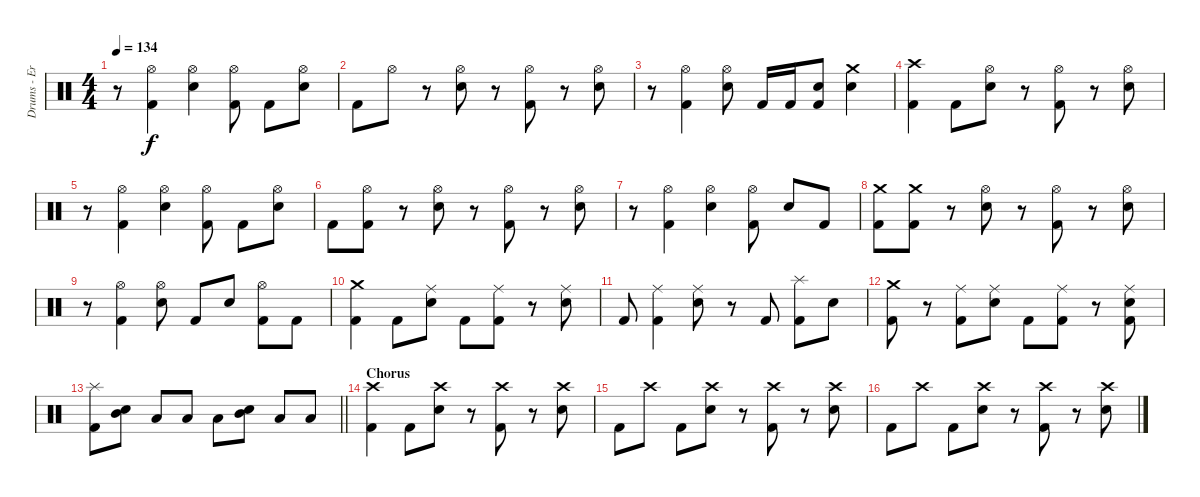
\track ("Drums - Eric Young" "Drums - Er") {instrument percussion}
\staff {score}
\articulation defaults
\ts (4 4)
\tempo 134
\clef neutral
\ks c
r.8{dy f} ("Hi-Hat (open)" "Kick (hit) 2").4 ("Hi-Hat (open)" "Electric Snare (hit)").4 ("Hi-Hat (open)" "Kick (hit) 2").8 "Kick (hit) 2".8 ("Hi-Hat (open)" "Electric Snare (hit)").8 |
"Kick (hit) 2".8 "Hi-Hat (open)".8 r.8 ("Hi-Hat (open)" "Electric Snare (hit)").8 r.8 ("Hi-Hat (open)" "Kick (hit) 2").8 r.8 ("Hi-Hat (open)" "Electric Snare (hit)").8 |
r.8 ("Hi-Hat (open)" "Kick (hit) 2").4 ("Hi-Hat (open)" "Electric Snare (hit)").8 "Kick (hit) 2".16 "Kick (hit) 2".16 ("Electric Snare (hit)" "Kick (hit) 2").8 ("Crash medium (hit)" "Electric Snare (hit)").4 |
("Crash high (hit)" "Kick (hit) 2").4 "Kick (hit) 2".8 ("Hi-Hat (open)" "Electric Snare (hit)").8 r.8 ("Hi-Hat (open)" "Kick (hit) 2").8 r.8 ("Hi-Hat (open)" "Electric Snare (hit)").8 |
r.8 ("Hi-Hat (open)" "Kick (hit) 2").4 ("Hi-Hat (open)" "Electric Snare (hit)").4 ("Hi-Hat (open)" "Kick (hit) 2").8 "Kick (hit) 2".8 ("Hi-Hat (open)" "Electric Snare (hit)").8 |
"Kick (hit) 2".8 ("Hi-Hat (open)" "Kick (hit) 2").8 r.8 ("Hi-Hat (open)" "Electric Snare (hit)").8 r.8 ("Hi-Hat (open)" "Kick (hit) 2").8 r.8 ("Hi-Hat (open)" "Electric Snare (hit)").8 |
r.8 ("Hi-Hat (open)" "Kick (hit) 2").4 ("Hi-Hat (open)" "Electric Snare (hit)").4 ("Hi-Hat (open)" "Kick (hit) 2").8 "Electric Snare (hit)".8 "Kick (hit) 2".8 |
("Crash medium (hit)" "Kick (hit) 2").8 ("Crash medium (hit)" "Kick (hit) 2").8 r.8 ("Hi-Hat (open)" "Electric Snare (hit)").8 r.8 ("Hi-Hat (open)" "Kick (hit) 2").8 r.8 ("Hi-Hat (open)" "Electric Snare (hit)").8 |
r.8 ("Hi-Hat (open)" "Kick (hit) 2").4 ("Hi-Hat (open)" "Electric Snare (hit)").8 "Kick (hit) 2".8 "Electric Snare (hit)".8 ("Hi-Hat (open)" "Kick (hit) 2").8 "Kick (hit) 2".8 |
("Crash medium (hit)" "Kick (hit) 2").4 "Kick (hit) 2".8 ("Ride (middle)" "Electric Snare (hit)").8 "Kick (hit) 2".8 ("Ride (middle)" "Kick (hit) 2").8 r.8 ("Ride (middle)" "Electric Snare (hit)").8 |
"Kick (hit) 2".8 ("Ride (middle)" "Kick (hit) 2").4 ("Ride (middle)" "Electric Snare (hit)").8 r.8 "Kick (hit) 2".8 ("Splash (hit)" "Kick (hit) 2").8 "Electric Snare (hit)".8 |
("Crash medium (hit)" "Kick (hit) 2").8 r.8 ("Ride (middle)" "Kick (hit) 2").8 ("Ride (middle)" "Electric Snare (hit)").8 "Kick (hit) 2".8 ("Ride (middle)" "Kick (hit) 2").8 r.8 ("Ride (middle)" "Electric Snare (hit)" "Kick (hit) 2").8 |
\barLineRight lightlight
("Splash (hit)" "Kick (hit) 2").8 ("Mid Tom (hit)" "Electric Snare (hit)").8 "Low Tom (hit)".8 "Low Tom (hit)".8 "Low Tom (hit)".8 ("Mid Tom (hit)" "Electric Snare (hit)").8 "Low Tom (hit)".8 "Low Tom (hit)".8 |
\section ("" "Chorus")
("Crash high (hit)" "Kick (hit) 2").4 "Kick (hit) 2".8 ("Crash high (hit)" "Electric Snare (hit)").8 r.8 ("Crash high (hit)" "Kick (hit) 2").8 r.8 ("Crash high (hit)" "Electric Snare (hit)").8 |
"Kick (hit) 2".8 "Crash high (hit)".8 "Kick (hit) 2".8 ("Crash high (hit)" "Electric Snare (hit)").8 r.8 ("Crash high (hit)" "Kick (hit) 2").8 r.8 ("Crash high (hit)" "Electric Snare (hit)").8 |
"Kick (hit) 2".8 "Crash high (hit)".8 "Kick (hit) 2".8 ("Crash high (hit)" "Electric Snare (hit)").8 r.8 ("Crash high (hit)" "Kick (hit) 2").8 r.8 ("Crash high (hit)" "Electric Snare (hit)").8
